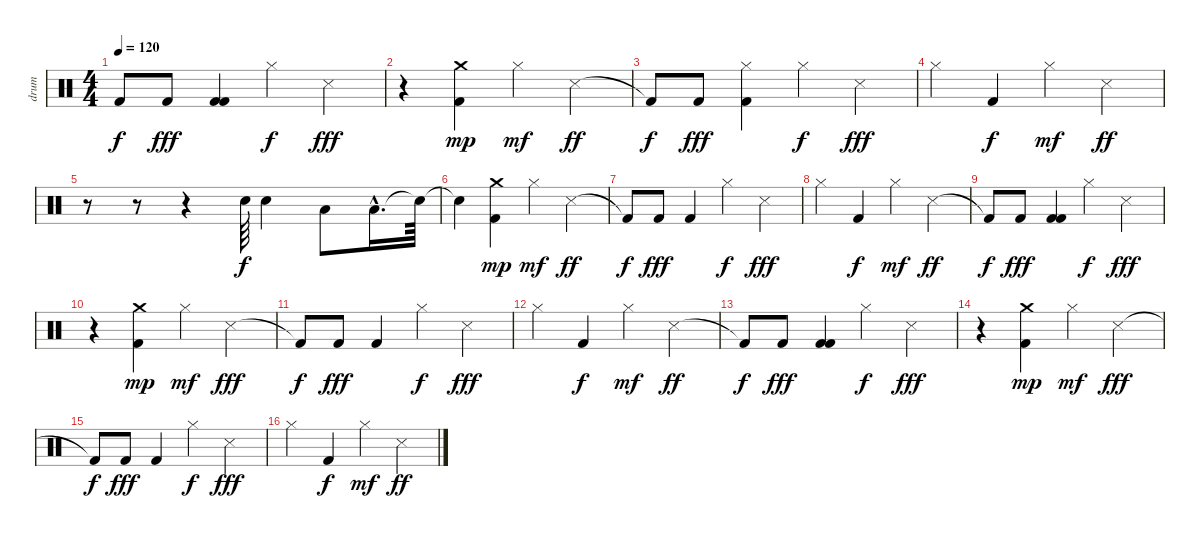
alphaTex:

\track ("drum" "drum") {instrument percussion}
\staff {score}
\articulation defaults
\ts (4 4)
\tempo 120
\clef neutral
\ks c "Kick (hit) 2"{t}.8{dy f} "Kick (hit) 2".8{dy fff}
("Kick (hit) 2" "Kick (hit) 2").4 "Hi-Hat (closed)".4{dy f} "Metronome (hit)".4{dy fff} |
r.4 ("Crash medium (hit)" "Kick (hit) 2").4{dy mp} "Hi-Hat (closed)".4{dy mf} "Metronome (hit)".4{dy ff} |
"Kick (hit) 2"{t}.8{dy f} "Kick (hit) 2".8{dy fff} ("Hi-Hat (closed)" "Kick (hit) 2").4 "Hi-Hat (closed)".4{dy f} "Metronome (hit)".4{dy fff} |
"Hi-Hat (closed)".4 "Kick (hit) 2".4{dy f} "Hi-Hat (closed)".4{dy mf} "Metronome (hit)".4{dy ff} |
r.8 r.8 r.4 "Snare (hit) 2".64{dy f} "Snare (hit) 2".4 "Low Floor Tom (hit)".8 "Low Floor Tom (hit)"{hac}.16{d} "Snare (hit)"{t}.64 |
"Snare (hit)"{t}.4 ("Crash medium (hit)" "Kick (hit) 2").4{dy mp} "Hi-Hat (closed)".4{dy mf} "Metronome (hit)".4{dy ff} |
"Kick (hit) 2"{t}.8{dy f} "Kick (hit) 2".8{dy fff} "Kick (hit) 2".4 "Hi-Hat (closed)".4{dy f} "Metronome (hit)".4{dy fff} |
"Hi-Hat (closed)".4 "Kick (hit) 2".4{dy f} "Hi-Hat (closed)".4{dy mf} "Metronome (hit)".4{dy ff} |
"Kick (hit) 2"{t}.8{dy f} "Kick (hit) 2".8{dy fff} ("Kick (hit) 2" "Kick (hit) 2").4 "Hi-Hat (closed)".4{dy f} "Metronome (hit)".4{dy fff} |
r.4 ("Crash medium (hit)" "Kick (hit) 2").4{dy mp} "Hi-Hat (closed)".4{dy mf} "Metronome (hit)".4{dy fff} |
"Kick (hit) 2"{t}.8{dy f} "Kick (hit) 2".8{dy fff} "Kick (hit) 2".4 "Hi-Hat (closed)".4{dy f} "Metronome (hit)".4{dy fff} |
"Hi-Hat (closed)".4 "Kick (hit) 2".4{dy f} "Hi-Hat (closed)".4{dy mf} "Metronome (hit)".4{dy ff} |
"Kick (hit) 2"{t}.8{dy f} "Kick (hit) 2".8{dy fff} ("Kick (hit) 2" "Kick (hit) 2").4 "Hi-Hat (closed)".4{dy f} "Metronome (hit)".4{dy fff} |
r.4 ("Crash medium (hit)" "Kick (hit) 2").4{dy mp} "Hi-Hat (closed)".4{dy mf} "Metronome (hit)".4{dy fff} |
"Kick (hit) 2"{t}.8{dy f} "Kick (hit) 2".8{dy fff} "Kick (hit) 2".4 "Hi-Hat (closed)".4{dy f} "Metronome (hit)".4{dy fff} |
"Hi-Hat (closed)".4 "Kick (hit) 2".4{dy f} "Hi-Hat (closed)".4{dy mf} "Metronome (hit)".4{dy ff}
